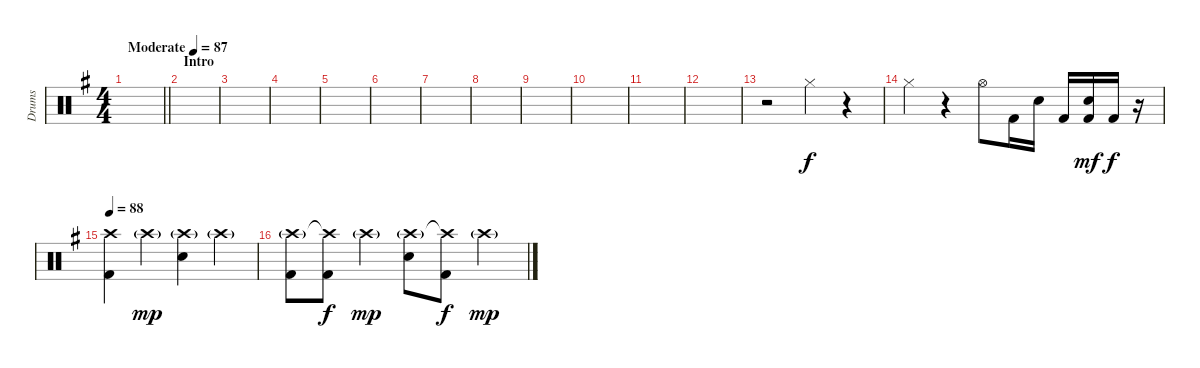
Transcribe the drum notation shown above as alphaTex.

\track ("Drums" "Drums") {instrument percussion}
\staff {score}
\articulation defaults
\ts (4 4)
\tempo (87 "Moderate")
\clef neutral
\barLineRight lightlight
\ks g
|
\section ("" "Intro")
|
|
|
|
|
|
|
|
|
|
|
r.2 "Hi-Hat (closed)".4 r.4 |
"Hi-Hat (closed)".4 r.4 "Hi-Hat (open)".8 "Kick (hit) 2".16 "Electric Snare (hit)".16 "Kick (hit) 2".16 ("Electric Snare (hit)" "Kick (hit) 2").16{bd 240 dy mf} "Kick (hit) 2".16{dy f} r.16 |
\tempo 88
("Crash high (hit)" "Kick (hit) 2").4 "Crash high (hit)"{g}.4{dy mp} ("Crash high (hit)"{g} "Electric Snare (hit)").4 "Crash high (hit)"{g}.4 |
("Crash high (hit)"{g} "Kick (hit) 2").8 ("Crash high (hit)"{t} "Kick (hit) 2").8{dy f} "Crash high (hit)"{g}.4{dy mp} ("Crash high (hit)"{g} "Electric Snare (hit)").8 ("Crash high (hit)"{t} "Kick (hit) 2").8{dy f} "Crash high (hit)"{g}.4{dy mp}
